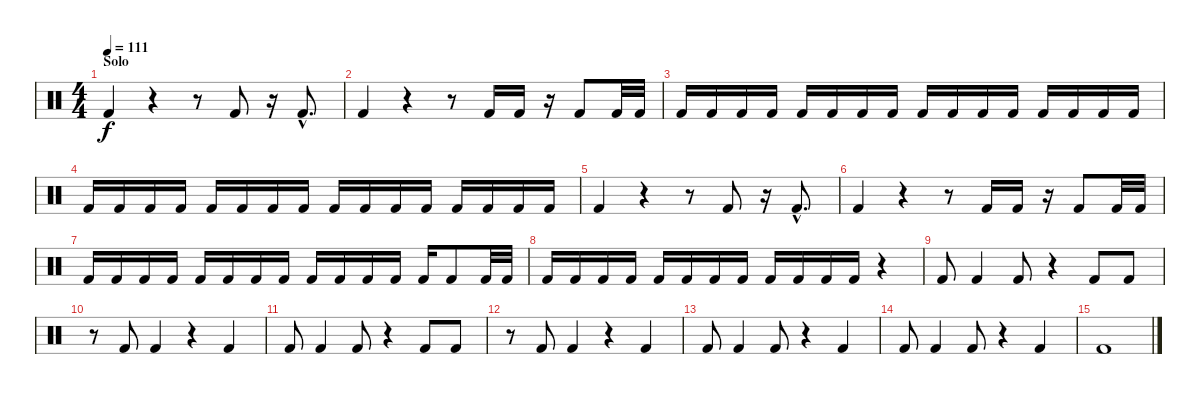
\track "" {instrument percussion}
\staff {score}
\articulation defaults
\ts (4 4)
\section ("" "Solo")
\tempo 111
\clef neutral
\ks c "Kick (hit) 2".4{dy f}
r.4 r.8 "Kick (hit) 2".8 r.16 "Kick (hit) 2"{hac}.8{d} |
"Kick (hit) 2".4 r.4 r.8 "Kick (hit) 2".16 "Kick (hit) 2".16 r.16 "Kick (hit) 2".8 "Kick (hit) 2".32 "Kick (hit) 2".32 |
"Kick (hit) 2".16 "Kick (hit) 2".16 "Kick (hit) 2".16 "Kick (hit) 2".16 "Kick (hit) 2".16 "Kick (hit) 2".16 "Kick (hit) 2".16 "Kick (hit) 2".16 "Kick (hit) 2".16 "Kick (hit) 2".16 "Kick (hit) 2".16 "Kick (hit) 2".16 "Kick (hit) 2".16 "Kick (hit) 2".16 "Kick (hit) 2".16 "Kick (hit) 2".16 |
"Kick (hit) 2".16 "Kick (hit) 2".16 "Kick (hit) 2".16 "Kick (hit) 2".16 "Kick (hit) 2".16 "Kick (hit) 2".16 "Kick (hit) 2".16 "Kick (hit) 2".16 "Kick (hit) 2".16 "Kick (hit) 2".16 "Kick (hit) 2".16 "Kick (hit) 2".16 "Kick (hit) 2".16 "Kick (hit) 2".16 "Kick (hit) 2".16 "Kick (hit) 2".16 |
"Kick (hit) 2".4 r.4 r.8 "Kick (hit) 2".8 r.16 "Kick (hit) 2"{hac}.8{d} |
"Kick (hit) 2".4 r.4 r.8 "Kick (hit) 2".16 "Kick (hit) 2".16 r.16 "Kick (hit) 2".8 "Kick (hit) 2".32 "Kick (hit) 2".32 |
"Kick (hit) 2".16 "Kick (hit) 2".16 "Kick (hit) 2".16 "Kick (hit) 2".16 "Kick (hit) 2".16 "Kick (hit) 2".16 "Kick (hit) 2".16 "Kick (hit) 2".16 "Kick (hit) 2".16 "Kick (hit) 2".16 "Kick (hit) 2".16 "Kick (hit) 2".16 "Kick (hit) 2".16 "Kick (hit) 2".8 "Kick (hit) 2".32 "Kick (hit) 2".32 |
"Kick (hit) 2".16 "Kick (hit) 2".16 "Kick (hit) 2".16 "Kick (hit) 2".16 "Kick (hit) 2".16 "Kick (hit) 2".16 "Kick (hit) 2".16 "Kick (hit) 2".16 "Kick (hit) 2".16 "Kick (hit) 2".16 "Kick (hit) 2".16 "Kick (hit) 2".16 r.4 |
"Kick (hit) 2".8 "Kick (hit) 2".4 "Kick (hit) 2".8 r.4 "Kick (hit) 2".8 "Kick (hit) 2".8 |
r.8 "Kick (hit) 2".8 "Kick (hit) 2".4 r.4 "Kick (hit) 2".4 |
"Kick (hit) 2".8 "Kick (hit) 2".4 "Kick (hit) 2".8 r.4 "Kick (hit) 2".8 "Kick (hit) 2".8 |
r.8 "Kick (hit) 2".8 "Kick (hit) 2".4 r.4 "Kick (hit) 2".4 |
"Kick (hit) 2".8 "Kick (hit) 2".4 "Kick (hit) 2".8 r.4 "Kick (hit) 2".4 |
"Kick (hit) 2".8 "Kick (hit) 2".4 "Kick (hit) 2".8 r.4 "Kick (hit) 2".4 |
"Kick (hit) 2".1
